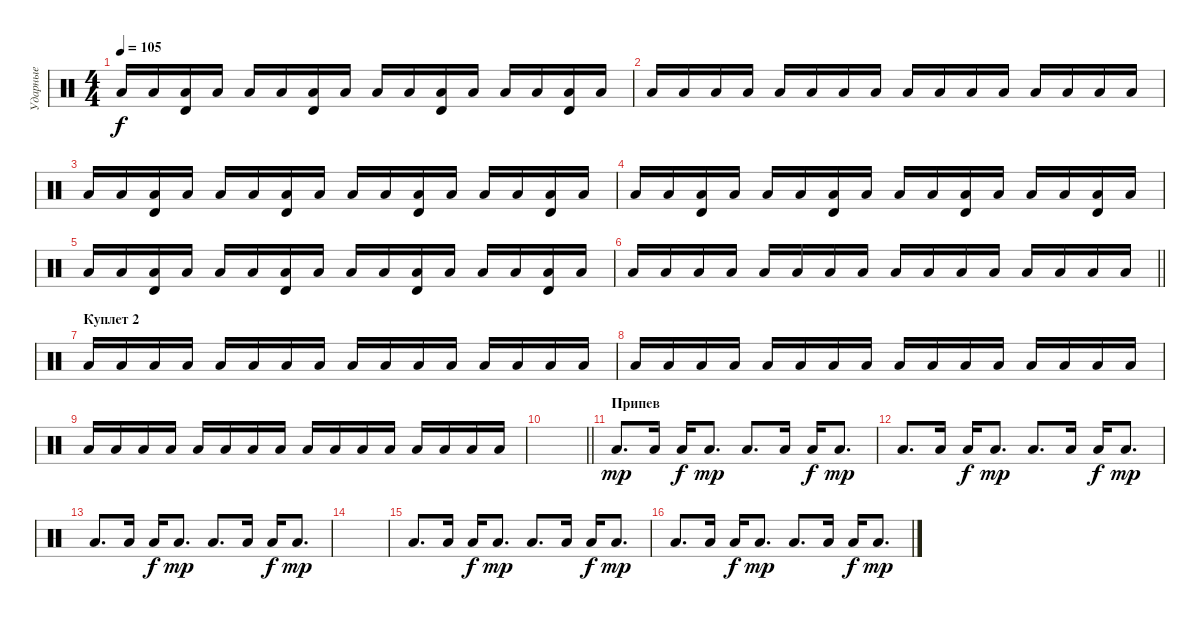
\track ("Ударные" "Ударные") {instrument percussion}
\staff {score}
\articulation defaults
\ts (4 4)
\tempo 105
\clef neutral
\ks c "Low Tom (hit)".16{dy f} "Low Tom (hit)".16
("Timbale high (hit)" "Low Tom (hit)").16 "Low Tom (hit)".16 "Low Tom (hit)".16 "Low Tom (hit)".16 ("Timbale high (hit)" "Low Tom (hit)").16 "Low Tom (hit)".16 "Low Tom (hit)".16 "Low Tom (hit)".16 ("Timbale high (hit)" "Low Tom (hit)").16 "Low Tom (hit)".16 "Low Tom (hit)".16 "Low Tom (hit)".16 ("Timbale high (hit)" "Low Tom (hit)").16 "Low Tom (hit)".16 |
"Low Tom (hit)".16 "Low Tom (hit)".16 "Low Tom (hit)".16 "Low Tom (hit)".16 "Low Tom (hit)".16 "Low Tom (hit)".16 "Low Tom (hit)".16 "Low Tom (hit)".16 "Low Tom (hit)".16 "Low Tom (hit)".16 "Low Tom (hit)".16 "Low Tom (hit)".16 "Low Tom (hit)".16 "Low Tom (hit)".16 "Low Tom (hit)".16 "Low Tom (hit)".16 |
"Low Tom (hit)".16 "Low Tom (hit)".16 ("Timbale high (hit)" "Low Tom (hit)").16 "Low Tom (hit)".16 "Low Tom (hit)".16 "Low Tom (hit)".16 ("Timbale high (hit)" "Low Tom (hit)").16 "Low Tom (hit)".16 "Low Tom (hit)".16 "Low Tom (hit)".16 ("Timbale high (hit)" "Low Tom (hit)").16 "Low Tom (hit)".16 "Low Tom (hit)".16 "Low Tom (hit)".16 ("Timbale high (hit)" "Low Tom (hit)").16 "Low Tom (hit)".16 |
"Low Tom (hit)".16 "Low Tom (hit)".16 ("Timbale high (hit)" "Low Tom (hit)").16 "Low Tom (hit)".16 "Low Tom (hit)".16 "Low Tom (hit)".16 ("Timbale high (hit)" "Low Tom (hit)").16 "Low Tom (hit)".16 "Low Tom (hit)".16 "Low Tom (hit)".16 ("Timbale high (hit)" "Low Tom (hit)").16 "Low Tom (hit)".16 "Low Tom (hit)".16 "Low Tom (hit)".16 ("Timbale high (hit)" "Low Tom (hit)").16 "Low Tom (hit)".16 |
"Low Tom (hit)".16 "Low Tom (hit)".16 ("Timbale high (hit)" "Low Tom (hit)").16 "Low Tom (hit)".16 "Low Tom (hit)".16 "Low Tom (hit)".16 ("Timbale high (hit)" "Low Tom (hit)").16 "Low Tom (hit)".16 "Low Tom (hit)".16 "Low Tom (hit)".16 ("Timbale high (hit)" "Low Tom (hit)").16 "Low Tom (hit)".16 "Low Tom (hit)".16 "Low Tom (hit)".16 ("Timbale high (hit)" "Low Tom (hit)").16 "Low Tom (hit)".16 |
\barLineRight lightlight "Low Tom (hit)".16 "Low Tom (hit)".16 "Low Tom (hit)".16 "Low Tom (hit)".16 "Low Tom (hit)".16 "Low Tom (hit)".16 "Low Tom (hit)".16 "Low Tom (hit)".16 "Low Tom (hit)".16 "Low Tom (hit)".16 "Low Tom (hit)".16 "Low Tom (hit)".16 "Low Tom (hit)".16 "Low Tom (hit)".16 "Low Tom (hit)".16 "Low Tom (hit)".16
|
\section ("" "Куплет 2")
"Low Tom (hit)".16 "Low Tom (hit)".16 "Low Tom (hit)".16 "Low Tom (hit)".16 "Low Tom (hit)".16 "Low Tom (hit)".16 "Low Tom (hit)".16 "Low Tom (hit)".16 "Low Tom (hit)".16 "Low Tom (hit)".16 "Low Tom (hit)".16 "Low Tom (hit)".16 "Low Tom (hit)".16 "Low Tom (hit)".16 "Low Tom (hit)".16 "Low Tom (hit)".16 |
"Low Tom (hit)".16 "Low Tom (hit)".16 "Low Tom (hit)".16 "Low Tom (hit)".16 "Low Tom (hit)".16 "Low Tom (hit)".16 "Low Tom (hit)".16 "Low Tom (hit)".16 "Low Tom (hit)".16 "Low Tom (hit)".16 "Low Tom (hit)".16 "Low Tom (hit)".16 "Low Tom (hit)".16 "Low Tom (hit)".16 "Low Tom (hit)".16 "Low Tom (hit)".16 |
"Low Tom (hit)".16 "Low Tom (hit)".16 "Low Tom (hit)".16 "Low Tom (hit)".16 "Low Tom (hit)".16 "Low Tom (hit)".16 "Low Tom (hit)".16 "Low Tom (hit)".16 "Low Tom (hit)".16 "Low Tom (hit)".16 "Low Tom (hit)".16 "Low Tom (hit)".16 "Low Tom (hit)".16 "Low Tom (hit)".16 "Low Tom (hit)".16 "Low Tom (hit)".16 |
\barLineRight lightlight
|
\section ("" "Припев")
"Low Tom (hit)".8{d dy mp} "Low Tom (hit)".16 "Low Tom (hit)".16{dy f} "Low Tom (hit)".8{d dy mp} "Low Tom (hit)".8{d} "Low Tom (hit)".16 "Low Tom (hit)".16{dy f} "Low Tom (hit)".8{d dy mp} |
"Low Tom (hit)".8{d} "Low Tom (hit)".16 "Low Tom (hit)".16{dy f} "Low Tom (hit)".8{d dy mp} "Low Tom (hit)".8{d} "Low Tom (hit)".16 "Low Tom (hit)".16{dy f} "Low Tom (hit)".8{d dy mp} |
"Low Tom (hit)".8{d} "Low Tom (hit)".16 "Low Tom (hit)".16{dy f} "Low Tom (hit)".8{d dy mp} "Low Tom (hit)".8{d} "Low Tom (hit)".16 "Low Tom (hit)".16{dy f} "Low Tom (hit)".8{d dy mp} |
|
"Low Tom (hit)".8{d} "Low Tom (hit)".16 "Low Tom (hit)".16{dy f} "Low Tom (hit)".8{d dy mp} "Low Tom (hit)".8{d} "Low Tom (hit)".16 "Low Tom (hit)".16{dy f} "Low Tom (hit)".8{d dy mp} |
"Low Tom (hit)".8{d} "Low Tom (hit)".16 "Low Tom (hit)".16{dy f} "Low Tom (hit)".8{d dy mp} "Low Tom (hit)".8{d} "Low Tom (hit)".16 "Low Tom (hit)".16{dy f} "Low Tom (hit)".8{d dy mp}
